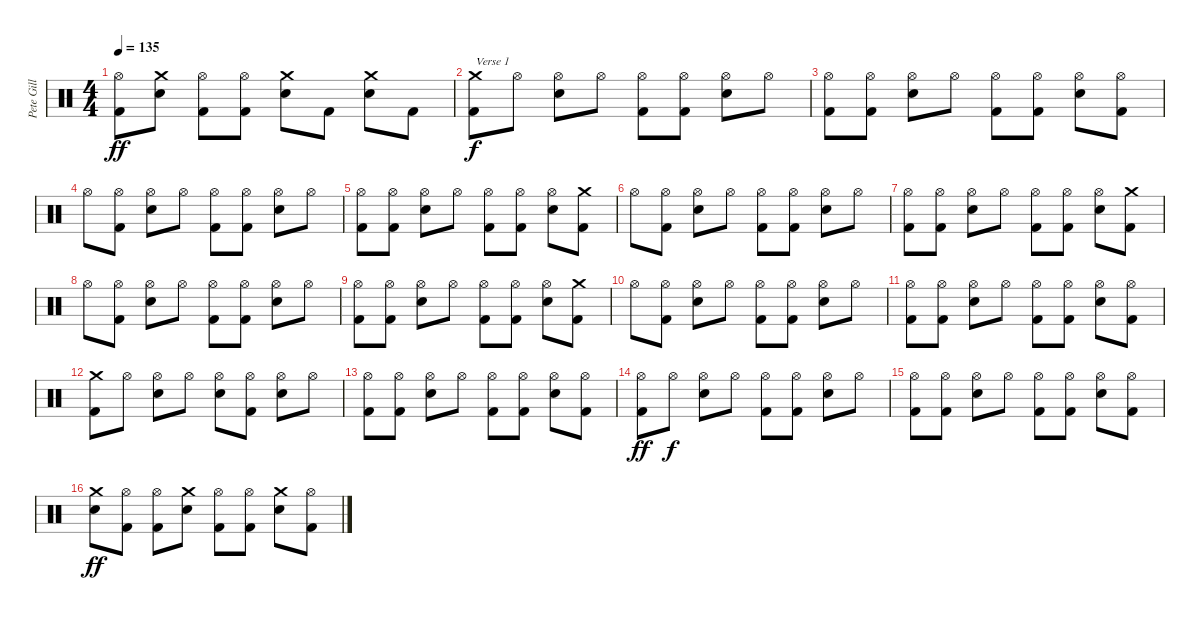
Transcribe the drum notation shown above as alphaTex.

\track ("Pete Gill" "Pete Gill") {instrument percussion}
\staff {score}
\articulation defaults
\ts (4 4)
\tempo 135
\clef neutral
\ks c
("Hi-Hat (open)" "Kick (hit) 2").8{dy ff} ("Crash medium (hit)" "Snare (hit) 2").8 ("Hi-Hat (open)" "Kick (hit) 2").8 ("Hi-Hat (open)" "Kick (hit) 2").8 ("Crash medium (hit)" "Snare (hit) 2").8 "Kick (hit) 2".8 ("Crash medium (hit)" "Snare (hit) 2").8 "Kick (hit) 2".8 |
("Crash medium (hit)" "Kick (hit) 2").8{txt "Verse 1" dy f} "Hi-Hat (open)".8 ("Hi-Hat (open)" "Snare (hit) 2").8 "Hi-Hat (open)".8 ("Hi-Hat (open)" "Kick (hit) 2").8 ("Hi-Hat (open)" "Kick (hit) 2").8 ("Hi-Hat (open)" "Snare (hit) 2").8 "Hi-Hat (open)".8 |
("Hi-Hat (open)" "Kick (hit) 2").8 ("Hi-Hat (open)" "Kick (hit) 2").8 ("Hi-Hat (open)" "Snare (hit) 2").8 "Hi-Hat (open)".8 ("Hi-Hat (open)" "Kick (hit) 2").8 ("Hi-Hat (open)" "Kick (hit) 2").8 ("Hi-Hat (open)" "Snare (hit) 2").8 ("Hi-Hat (open)" "Kick (hit) 2").8 |
"Hi-Hat (open)".8 ("Hi-Hat (open)" "Kick (hit) 2").8 ("Hi-Hat (open)" "Snare (hit) 2").8 "Hi-Hat (open)".8 ("Hi-Hat (open)" "Kick (hit) 2").8 ("Hi-Hat (open)" "Kick (hit) 2").8 ("Hi-Hat (open)" "Snare (hit) 2").8 "Hi-Hat (open)".8 |
("Hi-Hat (open)" "Kick (hit) 2").8 ("Hi-Hat (open)" "Kick (hit) 2").8 ("Hi-Hat (open)" "Snare (hit) 2").8 "Hi-Hat (open)".8 ("Hi-Hat (open)" "Kick (hit) 2").8 ("Hi-Hat (open)" "Kick (hit) 2").8 ("Hi-Hat (open)" "Snare (hit) 2").8 ("Kick (hit) 2" "Crash medium (hit)").8 |
"Hi-Hat (open)".8 ("Hi-Hat (open)" "Kick (hit) 2").8 ("Hi-Hat (open)" "Snare (hit) 2").8 "Hi-Hat (open)".8 ("Hi-Hat (open)" "Kick (hit) 2").8 ("Hi-Hat (open)" "Kick (hit) 2").8 ("Hi-Hat (open)" "Snare (hit) 2").8 "Hi-Hat (open)".8 |
("Hi-Hat (open)" "Kick (hit) 2").8 ("Hi-Hat (open)" "Kick (hit) 2").8 ("Hi-Hat (open)" "Snare (hit) 2").8 "Hi-Hat (open)".8 ("Hi-Hat (open)" "Kick (hit) 2").8 ("Hi-Hat (open)" "Kick (hit) 2").8 ("Hi-Hat (open)" "Snare (hit) 2").8 ("Kick (hit) 2" "Crash medium (hit)").8 |
"Hi-Hat (open)".8 ("Hi-Hat (open)" "Kick (hit) 2").8 ("Hi-Hat (open)" "Snare (hit) 2").8 "Hi-Hat (open)".8 ("Hi-Hat (open)" "Kick (hit) 2").8 ("Hi-Hat (open)" "Kick (hit) 2").8 ("Hi-Hat (open)" "Snare (hit) 2").8 "Hi-Hat (open)".8 |
("Hi-Hat (open)" "Kick (hit) 2").8 ("Hi-Hat (open)" "Kick (hit) 2").8 ("Hi-Hat (open)" "Snare (hit) 2").8 "Hi-Hat (open)".8 ("Hi-Hat (open)" "Kick (hit) 2").8 ("Hi-Hat (open)" "Kick (hit) 2").8 ("Hi-Hat (open)" "Snare (hit) 2").8 ("Kick (hit) 2" "Crash medium (hit)").8 |
"Hi-Hat (open)".8 ("Hi-Hat (open)" "Kick (hit) 2").8 ("Hi-Hat (open)" "Snare (hit) 2").8 "Hi-Hat (open)".8 ("Hi-Hat (open)" "Kick (hit) 2").8 ("Hi-Hat (open)" "Kick (hit) 2").8 ("Hi-Hat (open)" "Snare (hit) 2").8 "Hi-Hat (open)".8 |
("Hi-Hat (open)" "Kick (hit) 2").8 ("Hi-Hat (open)" "Kick (hit) 2").8 ("Hi-Hat (open)" "Snare (hit) 2").8 "Hi-Hat (open)".8 ("Hi-Hat (open)" "Kick (hit) 2").8 ("Hi-Hat (open)" "Kick (hit) 2").8 ("Hi-Hat (open)" "Snare (hit) 2").8 ("Hi-Hat (open)" "Kick (hit) 2").8 |
("Crash medium (hit)" "Kick (hit) 2").8 "Hi-Hat (open)".8 ("Hi-Hat (open)" "Snare (hit) 2").8 "Hi-Hat (open)".8 ("Hi-Hat (open)" "Snare (hit) 2").8 ("Hi-Hat (open)" "Kick (hit) 2").8 ("Hi-Hat (open)" "Snare (hit) 2").8 "Hi-Hat (open)".8 |
("Hi-Hat (open)" "Kick (hit) 2").8 ("Hi-Hat (open)" "Kick (hit) 2").8 ("Hi-Hat (open)" "Snare (hit) 2").8 "Hi-Hat (open)".8 ("Hi-Hat (open)" "Kick (hit) 2").8 ("Hi-Hat (open)" "Kick (hit) 2").8 ("Hi-Hat (open)" "Snare (hit) 2").8 ("Hi-Hat (open)" "Kick (hit) 2").8 |
("Kick (hit) 2" "Hi-Hat (open)").8{dy ff} "Hi-Hat (open)".8{dy f} ("Hi-Hat (open)" "Snare (hit) 2").8 "Hi-Hat (open)".8 ("Hi-Hat (open)" "Kick (hit) 2").8 ("Hi-Hat (open)" "Kick (hit) 2").8 ("Hi-Hat (open)" "Snare (hit) 2").8 "Hi-Hat (open)".8 |
("Hi-Hat (open)" "Kick (hit) 2").8 ("Hi-Hat (open)" "Kick (hit) 2").8 ("Hi-Hat (open)" "Snare (hit) 2").8 "Hi-Hat (open)".8 ("Hi-Hat (open)" "Kick (hit) 2").8 ("Hi-Hat (open)" "Kick (hit) 2").8 ("Hi-Hat (open)" "Snare (hit) 2").8 ("Hi-Hat (open)" "Kick (hit) 2").8 |
("Crash medium (hit)" "Snare (hit) 2").8{dy ff} ("Hi-Hat (open)" "Kick (hit) 2").8 ("Hi-Hat (open)" "Kick (hit) 2").8 ("Crash medium (hit)" "Snare (hit) 2").8 ("Hi-Hat (open)" "Kick (hit) 2").8 ("Hi-Hat (open)" "Kick (hit) 2").8 ("Crash medium (hit)" "Snare (hit) 2").8 ("Hi-Hat (open)" "Kick (hit) 2").8
